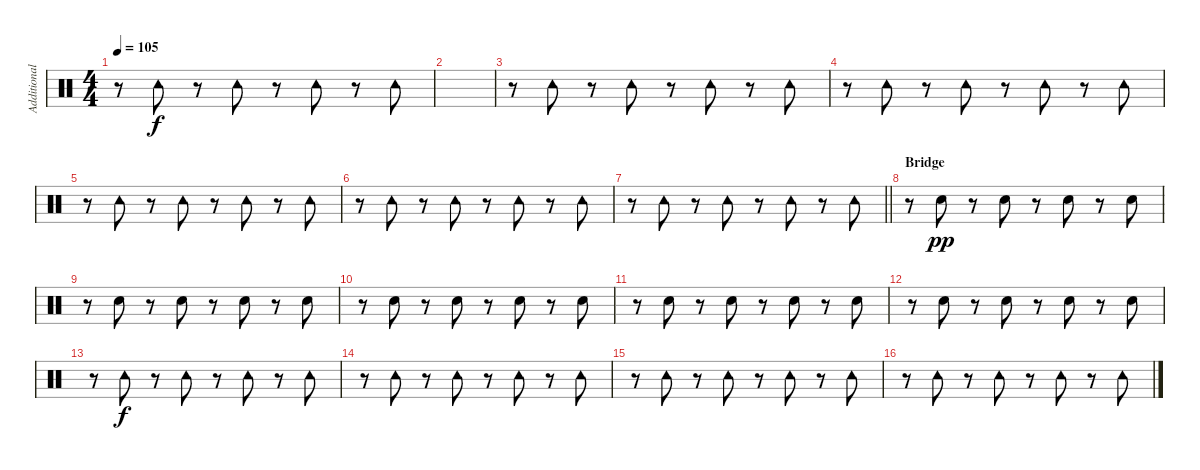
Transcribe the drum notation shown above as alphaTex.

\track ("Additional percussion" "Additional") {instrument percussion}
\staff {score}
\articulation defaults
\ts (4 4)
\tempo 105
\clef neutral
\ks c
r.8{dy f} "Tambourine (hit)".8 r.8 "Tambourine (hit)".8 r.8 "Tambourine (hit)".8 r.8 "Tambourine (hit)".8 |
|
r.8 "Tambourine (hit)".8 r.8 "Tambourine (hit)".8 r.8 "Tambourine (hit)".8 r.8 "Tambourine (hit)".8 |
r.8 "Tambourine (hit)".8 r.8 "Tambourine (hit)".8 r.8 "Tambourine (hit)".8 r.8 "Tambourine (hit)".8 |
r.8 "Tambourine (hit)".8 r.8 "Tambourine (hit)".8 r.8 "Tambourine (hit)".8 r.8 "Tambourine (hit)".8 |
r.8 "Tambourine (hit)".8 r.8 "Tambourine (hit)".8 r.8 "Tambourine (hit)".8 r.8 "Tambourine (hit)".8 |
\barLineRight lightlight
r.8 "Tambourine (hit)".8 r.8 "Tambourine (hit)".8 r.8 "Tambourine (hit)".8 r.8 "Tambourine (hit)".8 |
\section ("" "Bridge")
r.8 "Hand Clap (hit)".8{dy pp} r.8 "Hand Clap (hit)".8 r.8 "Hand Clap (hit)".8 r.8 "Hand Clap (hit)".8 |
r.8 "Hand Clap (hit)".8 r.8 "Hand Clap (hit)".8 r.8 "Hand Clap (hit)".8 r.8 "Hand Clap (hit)".8 |
r.8 "Hand Clap (hit)".8 r.8 "Hand Clap (hit)".8 r.8 "Hand Clap (hit)".8 r.8 "Hand Clap (hit)".8 |
r.8 "Hand Clap (hit)".8 r.8 "Hand Clap (hit)".8 r.8 "Hand Clap (hit)".8 r.8 "Hand Clap (hit)".8 |
r.8 "Hand Clap (hit)".8 r.8 "Hand Clap (hit)".8 r.8 "Hand Clap (hit)".8 r.8 "Hand Clap (hit)".8 |
r.8 "Tambourine (hit)".8{dy f} r.8 "Tambourine (hit)".8 r.8 "Tambourine (hit)".8 r.8 "Tambourine (hit)".8 |
r.8 "Tambourine (hit)".8 r.8 "Tambourine (hit)".8 r.8 "Tambourine (hit)".8 r.8 "Tambourine (hit)".8 |
r.8 "Tambourine (hit)".8 r.8 "Tambourine (hit)".8 r.8 "Tambourine (hit)".8 r.8 "Tambourine (hit)".8 |
r.8 "Tambourine (hit)".8 r.8 "Tambourine (hit)".8 r.8 "Tambourine (hit)".8 r.8 "Tambourine (hit)".8
